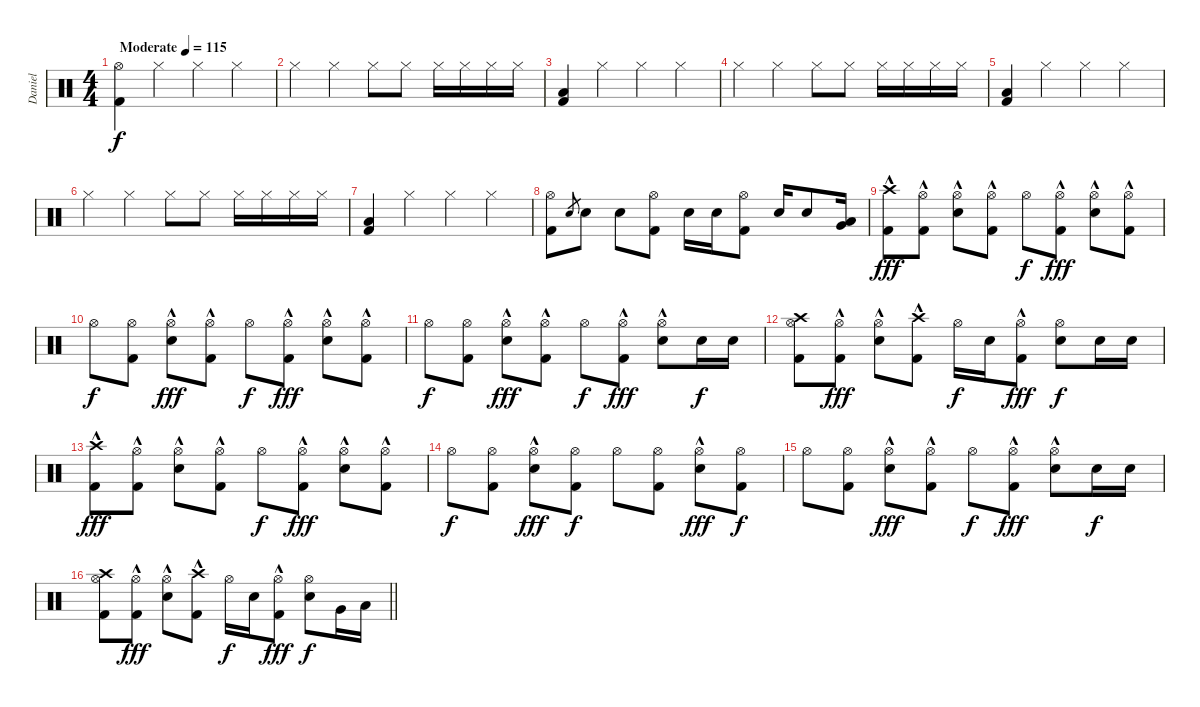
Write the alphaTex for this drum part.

\track ("Daniel" "Daniel") {instrument percussion}
\staff {score}
\articulation defaults
\ts (4 4)
\tempo (115 "Moderate")
\clef neutral
\ks c
("Hi-Hat (open)" "Kick (hit) 2").4{dy f} "Hi-Hat (closed)".4 "Hi-Hat (closed)".4 "Hi-Hat (closed)".4 |
"Hi-Hat (closed)".4 "Hi-Hat (closed)".4 "Hi-Hat (closed)".8 "Hi-Hat (closed)".8 "Hi-Hat (closed)".16 "Hi-Hat (closed)".16 "Hi-Hat (closed)".16 "Hi-Hat (closed)".16 |
("Low Floor Tom (hit)" "Kick (hit) 2").4 "Hi-Hat (closed)".4 "Hi-Hat (closed)".4 "Hi-Hat (closed)".4 |
"Hi-Hat (closed)".4 "Hi-Hat (closed)".4 "Hi-Hat (closed)".8 "Hi-Hat (closed)".8 "Hi-Hat (closed)".16 "Hi-Hat (closed)".16 "Hi-Hat (closed)".16 "Hi-Hat (closed)".16 |
("Low Floor Tom (hit)" "Kick (hit) 2").4 "Hi-Hat (closed)".4 "Hi-Hat (closed)".4 "Hi-Hat (closed)".4 |
"Hi-Hat (closed)".4 "Hi-Hat (closed)".4 "Hi-Hat (closed)".8 "Hi-Hat (closed)".8 "Hi-Hat (closed)".16 "Hi-Hat (closed)".16 "Hi-Hat (closed)".16 "Hi-Hat (closed)".16 |
("Low Floor Tom (hit)" "Kick (hit) 2").4 "Hi-Hat (closed)".4 "Hi-Hat (closed)".4 "Hi-Hat (closed)".4 |
("Kick (hit) 2" "Hi-Hat (open)").8 "Snare (hit) 2".8{gr} "Snare (hit) 2".8 "Snare (hit) 2".8 ("Kick (hit) 2" "Hi-Hat (open)").8 "Snare (hit) 2".16 "Snare (hit) 2".16 ("Kick (hit) 2" "Hi-Hat (open)").8 "Snare (hit) 2".16 "Snare (hit) 2".8 ("Very Low Tom (hit)" "Low Tom (hit)").16 |
("Crash high (hit)" "Kick (hit) 2"{hac}).8{dy fff} ("Hi-Hat (open)" "Kick (hit) 2"{hac}).8 ("Hi-Hat (open)"{hac} "Snare (hit) 2").8 ("Hi-Hat (open)" "Kick (hit) 2"{hac}).8 "Hi-Hat (open)".8{dy f} ("Hi-Hat (open)" "Kick (hit) 2"{hac}).8{dy fff} ("Hi-Hat (open)"{hac} "Snare (hit) 2").8 ("Hi-Hat (open)" "Kick (hit) 2"{hac}).8 |
"Hi-Hat (open)".8{dy f} ("Hi-Hat (open)" "Kick (hit) 2").8 ("Hi-Hat (open)"{hac} "Snare (hit) 2").8{dy fff} ("Hi-Hat (open)" "Kick (hit) 2"{hac}).8 "Hi-Hat (open)".8{dy f} ("Hi-Hat (open)" "Kick (hit) 2"{hac}).8{dy fff} ("Hi-Hat (open)"{hac} "Snare (hit) 2").8 ("Hi-Hat (open)" "Kick (hit) 2"{hac}).8 |
"Hi-Hat (open)".8{dy f} ("Hi-Hat (open)" "Kick (hit) 2").8 ("Hi-Hat (open)"{hac} "Snare (hit) 2").8{dy fff} ("Hi-Hat (open)" "Kick (hit) 2"{hac}).8 "Hi-Hat (open)".8{dy f} ("Hi-Hat (open)" "Kick (hit) 2"{hac}).8{dy fff} ("Hi-Hat (open)"{hac} "Snare (hit) 2").8 "Snare (hit) 2".16{dy f} "Snare (hit) 2".16 |
("Crash high (hit)" "Hi-Hat (open)" "Kick (hit) 2").8 ("Hi-Hat (open)" "Kick (hit) 2"{hac}).8{dy fff} ("Hi-Hat (open)"{hac} "Snare (hit) 2").8 ("Crash high (hit)" "Kick (hit) 2"{hac}).8 "Hi-Hat (open)".16{dy f} "Snare (hit) 2".16 ("Hi-Hat (open)" "Kick (hit) 2"{hac}).8{dy fff} ("Hi-Hat (open)" "Snare (hit) 2").8{dy f} "Snare (hit) 2".16 "Snare (hit) 2".16 |
("Crash high (hit)" "Kick (hit) 2"{hac}).8{dy fff} ("Hi-Hat (open)" "Kick (hit) 2"{hac}).8 ("Hi-Hat (open)"{hac} "Snare (hit) 2").8 ("Hi-Hat (open)" "Kick (hit) 2"{hac}).8 "Hi-Hat (open)".8{dy f} ("Hi-Hat (open)" "Kick (hit) 2"{hac}).8{dy fff} ("Hi-Hat (open)"{hac} "Snare (hit) 2").8 ("Hi-Hat (open)" "Kick (hit) 2"{hac}).8 |
"Hi-Hat (open)".8{dy f} ("Hi-Hat (open)" "Kick (hit) 2").8 ("Hi-Hat (open)"{hac} "Snare (hit) 2").8{dy fff} ("Hi-Hat (open)" "Kick (hit) 2").8{dy f} "Hi-Hat (open)".8 ("Hi-Hat (open)" "Kick (hit) 2").8 ("Hi-Hat (open)"{hac} "Snare (hit) 2").8{dy fff} ("Hi-Hat (open)" "Kick (hit) 2").8{dy f} |
"Hi-Hat (open)".8 ("Hi-Hat (open)" "Kick (hit) 2").8 ("Hi-Hat (open)"{hac} "Snare (hit) 2").8{dy fff} ("Hi-Hat (open)" "Kick (hit) 2"{hac}).8 "Hi-Hat (open)".8{dy f} ("Hi-Hat (open)" "Kick (hit) 2"{hac}).8{dy fff} ("Hi-Hat (open)"{hac} "Snare (hit) 2").8 "Snare (hit) 2".16{dy f} "Snare (hit) 2".16 |
\barLineRight lightlight
("Crash high (hit)" "Hi-Hat (open)" "Kick (hit) 2").8 ("Hi-Hat (open)" "Kick (hit) 2"{hac}).8{dy fff} ("Hi-Hat (open)"{hac} "Snare (hit) 2").8 ("Crash high (hit)" "Kick (hit) 2"{hac}).8 "Hi-Hat (open)".16{dy f} "Snare (hit) 2".16 ("Hi-Hat (open)" "Kick (hit) 2"{hac}).8{dy fff} ("Hi-Hat (open)" "Snare (hit) 2").8{dy f} "Very Low Tom (hit)".16 "Low Floor Tom (hit)".16
